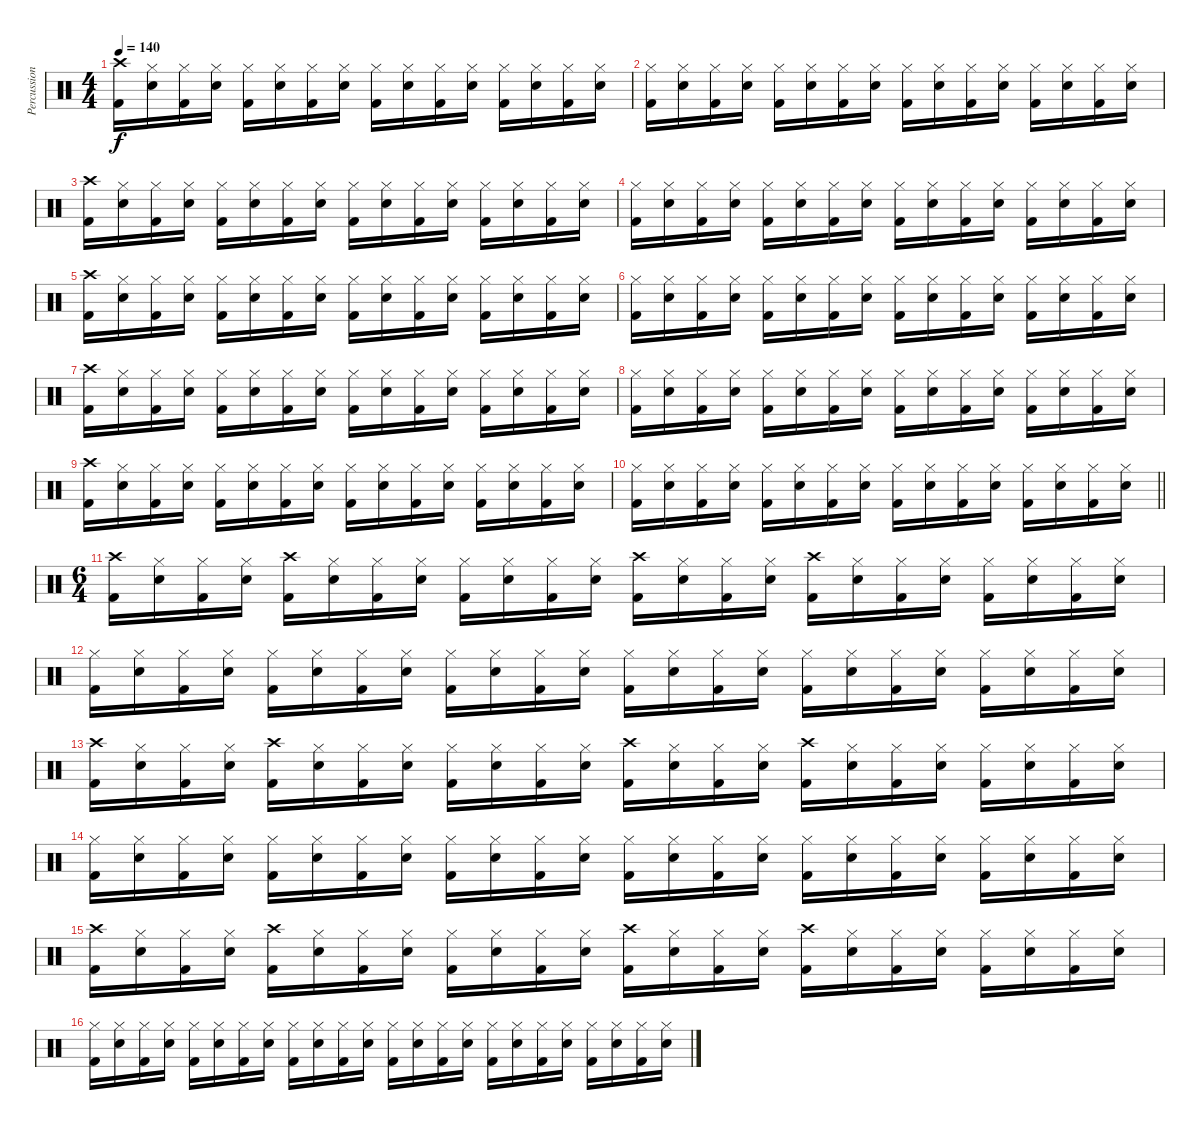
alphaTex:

\track ("Percussions" "Percussion") {instrument percussion}
\staff {score}
\articulation defaults
\ts (4 4)
\tempo 140
\clef neutral
\ks c
("Crash high (hit)" "Kick (hit) 2").16{dy f} ("Hi-Hat (closed)" "Electric Snare (hit)").16 ("Hi-Hat (closed)" "Kick (hit) 2").16 ("Hi-Hat (closed)" "Electric Snare (hit)").16 ("Hi-Hat (closed)" "Kick (hit) 2").16 ("Hi-Hat (closed)" "Electric Snare (hit)").16 ("Hi-Hat (closed)" "Kick (hit) 2").16 ("Hi-Hat (closed)" "Electric Snare (hit)").16 ("Hi-Hat (closed)" "Kick (hit) 2").16 ("Hi-Hat (closed)" "Electric Snare (hit)").16 ("Hi-Hat (closed)" "Kick (hit) 2").16 ("Hi-Hat (closed)" "Electric Snare (hit)").16 ("Hi-Hat (closed)" "Kick (hit) 2").16 ("Hi-Hat (closed)" "Electric Snare (hit)").16 ("Hi-Hat (closed)" "Kick (hit) 2").16 ("Hi-Hat (closed)" "Electric Snare (hit)").16 |
("Hi-Hat (closed)" "Kick (hit) 2").16 ("Hi-Hat (closed)" "Electric Snare (hit)").16 ("Hi-Hat (closed)" "Kick (hit) 2").16 ("Hi-Hat (closed)" "Electric Snare (hit)").16 ("Hi-Hat (closed)" "Kick (hit) 2").16 ("Hi-Hat (closed)" "Electric Snare (hit)").16 ("Hi-Hat (closed)" "Kick (hit) 2").16 ("Hi-Hat (closed)" "Electric Snare (hit)").16 ("Hi-Hat (closed)" "Kick (hit) 2").16 ("Hi-Hat (closed)" "Electric Snare (hit)").16 ("Hi-Hat (closed)" "Kick (hit) 2").16 ("Hi-Hat (closed)" "Electric Snare (hit)").16 ("Hi-Hat (closed)" "Kick (hit) 2").16 ("Hi-Hat (closed)" "Electric Snare (hit)").16 ("Hi-Hat (closed)" "Kick (hit) 2").16 ("Hi-Hat (closed)" "Electric Snare (hit)").16 |
("Crash high (hit)" "Kick (hit) 2").16 ("Hi-Hat (closed)" "Electric Snare (hit)").16 ("Hi-Hat (closed)" "Kick (hit) 2").16 ("Hi-Hat (closed)" "Electric Snare (hit)").16 ("Hi-Hat (closed)" "Kick (hit) 2").16 ("Hi-Hat (closed)" "Electric Snare (hit)").16 ("Hi-Hat (closed)" "Kick (hit) 2").16 ("Hi-Hat (closed)" "Electric Snare (hit)").16 ("Hi-Hat (closed)" "Kick (hit) 2").16 ("Hi-Hat (closed)" "Electric Snare (hit)").16 ("Hi-Hat (closed)" "Kick (hit) 2").16 ("Hi-Hat (closed)" "Electric Snare (hit)").16 ("Hi-Hat (closed)" "Kick (hit) 2").16 ("Hi-Hat (closed)" "Electric Snare (hit)").16 ("Hi-Hat (closed)" "Kick (hit) 2").16 ("Hi-Hat (closed)" "Electric Snare (hit)").16 |
("Hi-Hat (closed)" "Kick (hit) 2").16 ("Hi-Hat (closed)" "Electric Snare (hit)").16 ("Hi-Hat (closed)" "Kick (hit) 2").16 ("Hi-Hat (closed)" "Electric Snare (hit)").16 ("Hi-Hat (closed)" "Kick (hit) 2").16 ("Hi-Hat (closed)" "Electric Snare (hit)").16 ("Hi-Hat (closed)" "Kick (hit) 2").16 ("Hi-Hat (closed)" "Electric Snare (hit)").16 ("Hi-Hat (closed)" "Kick (hit) 2").16 ("Hi-Hat (closed)" "Electric Snare (hit)").16 ("Hi-Hat (closed)" "Kick (hit) 2").16 ("Hi-Hat (closed)" "Electric Snare (hit)").16 ("Hi-Hat (closed)" "Kick (hit) 2").16 ("Hi-Hat (closed)" "Electric Snare (hit)").16 ("Hi-Hat (closed)" "Kick (hit) 2").16 ("Hi-Hat (closed)" "Electric Snare (hit)").16 |
("Crash high (hit)" "Kick (hit) 2").16 ("Hi-Hat (closed)" "Electric Snare (hit)").16 ("Hi-Hat (closed)" "Kick (hit) 2").16 ("Hi-Hat (closed)" "Electric Snare (hit)").16 ("Hi-Hat (closed)" "Kick (hit) 2").16 ("Hi-Hat (closed)" "Electric Snare (hit)").16 ("Hi-Hat (closed)" "Kick (hit) 2").16 ("Hi-Hat (closed)" "Electric Snare (hit)").16 ("Hi-Hat (closed)" "Kick (hit) 2").16 ("Hi-Hat (closed)" "Electric Snare (hit)").16 ("Hi-Hat (closed)" "Kick (hit) 2").16 ("Hi-Hat (closed)" "Electric Snare (hit)").16 ("Hi-Hat (closed)" "Kick (hit) 2").16 ("Hi-Hat (closed)" "Electric Snare (hit)").16 ("Hi-Hat (closed)" "Kick (hit) 2").16 ("Hi-Hat (closed)" "Electric Snare (hit)").16 |
("Hi-Hat (closed)" "Kick (hit) 2").16 ("Hi-Hat (closed)" "Electric Snare (hit)").16 ("Hi-Hat (closed)" "Kick (hit) 2").16 ("Hi-Hat (closed)" "Electric Snare (hit)").16 ("Hi-Hat (closed)" "Kick (hit) 2").16 ("Hi-Hat (closed)" "Electric Snare (hit)").16 ("Hi-Hat (closed)" "Kick (hit) 2").16 ("Hi-Hat (closed)" "Electric Snare (hit)").16 ("Hi-Hat (closed)" "Kick (hit) 2").16 ("Hi-Hat (closed)" "Electric Snare (hit)").16 ("Hi-Hat (closed)" "Kick (hit) 2").16 ("Hi-Hat (closed)" "Electric Snare (hit)").16 ("Hi-Hat (closed)" "Kick (hit) 2").16 ("Hi-Hat (closed)" "Electric Snare (hit)").16 ("Hi-Hat (closed)" "Kick (hit) 2").16 ("Hi-Hat (closed)" "Electric Snare (hit)").16 |
("Crash high (hit)" "Kick (hit) 2").16 ("Hi-Hat (closed)" "Electric Snare (hit)").16 ("Hi-Hat (closed)" "Kick (hit) 2").16 ("Hi-Hat (closed)" "Electric Snare (hit)").16 ("Hi-Hat (closed)" "Kick (hit) 2").16 ("Hi-Hat (closed)" "Electric Snare (hit)").16 ("Hi-Hat (closed)" "Kick (hit) 2").16 ("Hi-Hat (closed)" "Electric Snare (hit)").16 ("Hi-Hat (closed)" "Kick (hit) 2").16 ("Hi-Hat (closed)" "Electric Snare (hit)").16 ("Hi-Hat (closed)" "Kick (hit) 2").16 ("Hi-Hat (closed)" "Electric Snare (hit)").16 ("Hi-Hat (closed)" "Kick (hit) 2").16 ("Hi-Hat (closed)" "Electric Snare (hit)").16 ("Hi-Hat (closed)" "Kick (hit) 2").16 ("Hi-Hat (closed)" "Electric Snare (hit)").16 |
("Hi-Hat (closed)" "Kick (hit) 2").16 ("Hi-Hat (closed)" "Electric Snare (hit)").16 ("Hi-Hat (closed)" "Kick (hit) 2").16 ("Hi-Hat (closed)" "Electric Snare (hit)").16 ("Hi-Hat (closed)" "Kick (hit) 2").16 ("Hi-Hat (closed)" "Electric Snare (hit)").16 ("Hi-Hat (closed)" "Kick (hit) 2").16 ("Hi-Hat (closed)" "Electric Snare (hit)").16 ("Hi-Hat (closed)" "Kick (hit) 2").16 ("Hi-Hat (closed)" "Electric Snare (hit)").16 ("Hi-Hat (closed)" "Kick (hit) 2").16 ("Hi-Hat (closed)" "Electric Snare (hit)").16 ("Hi-Hat (closed)" "Kick (hit) 2").16 ("Hi-Hat (closed)" "Electric Snare (hit)").16 ("Hi-Hat (closed)" "Kick (hit) 2").16 ("Hi-Hat (closed)" "Electric Snare (hit)").16 |
("Crash high (hit)" "Kick (hit) 2").16 ("Hi-Hat (closed)" "Electric Snare (hit)").16 ("Hi-Hat (closed)" "Kick (hit) 2").16 ("Hi-Hat (closed)" "Electric Snare (hit)").16 ("Hi-Hat (closed)" "Kick (hit) 2").16 ("Hi-Hat (closed)" "Electric Snare (hit)").16 ("Hi-Hat (closed)" "Kick (hit) 2").16 ("Hi-Hat (closed)" "Electric Snare (hit)").16 ("Hi-Hat (closed)" "Kick (hit) 2").16 ("Hi-Hat (closed)" "Electric Snare (hit)").16 ("Hi-Hat (closed)" "Kick (hit) 2").16 ("Hi-Hat (closed)" "Electric Snare (hit)").16 ("Hi-Hat (closed)" "Kick (hit) 2").16 ("Hi-Hat (closed)" "Electric Snare (hit)").16 ("Hi-Hat (closed)" "Kick (hit) 2").16 ("Hi-Hat (closed)" "Electric Snare (hit)").16 |
\barLineRight lightlight
("Hi-Hat (closed)" "Kick (hit) 2").16 ("Hi-Hat (closed)" "Electric Snare (hit)").16 ("Hi-Hat (closed)" "Kick (hit) 2").16 ("Hi-Hat (closed)" "Electric Snare (hit)").16 ("Hi-Hat (closed)" "Kick (hit) 2").16 ("Hi-Hat (closed)" "Electric Snare (hit)").16 ("Hi-Hat (closed)" "Kick (hit) 2").16 ("Hi-Hat (closed)" "Electric Snare (hit)").16 ("Hi-Hat (closed)" "Kick (hit) 2").16 ("Hi-Hat (closed)" "Electric Snare (hit)").16 ("Hi-Hat (closed)" "Kick (hit) 2").16 ("Hi-Hat (closed)" "Electric Snare (hit)").16 ("Hi-Hat (closed)" "Kick (hit) 2").16 ("Hi-Hat (closed)" "Electric Snare (hit)").16 ("Hi-Hat (closed)" "Kick (hit) 2").16 ("Hi-Hat (closed)" "Electric Snare (hit)").16 |
\ts (6 4)
("Crash high (hit)" "Kick (hit) 2").16 ("Hi-Hat (closed)" "Electric Snare (hit)").16 ("Hi-Hat (closed)" "Kick (hit) 2").16 ("Hi-Hat (closed)" "Electric Snare (hit)").16 ("Crash high (hit)" "Kick (hit) 2").16 ("Hi-Hat (closed)" "Electric Snare (hit)").16 ("Hi-Hat (closed)" "Kick (hit) 2").16 ("Hi-Hat (closed)" "Electric Snare (hit)").16 ("Hi-Hat (closed)" "Kick (hit) 2").16 ("Hi-Hat (closed)" "Electric Snare (hit)").16 ("Hi-Hat (closed)" "Kick (hit) 2").16 ("Hi-Hat (closed)" "Electric Snare (hit)").16 ("Crash high (hit)" "Kick (hit) 2").16 ("Hi-Hat (closed)" "Electric Snare (hit)").16 ("Hi-Hat (closed)" "Kick (hit) 2").16 ("Hi-Hat (closed)" "Electric Snare (hit)").16 ("Crash high (hit)" "Kick (hit) 2").16 ("Hi-Hat (closed)" "Electric Snare (hit)").16 ("Hi-Hat (closed)" "Kick (hit) 2").16 ("Hi-Hat (closed)" "Electric Snare (hit)").16 ("Hi-Hat (closed)" "Kick (hit) 2").16 ("Hi-Hat (closed)" "Electric Snare (hit)").16 ("Hi-Hat (closed)" "Kick (hit) 2").16 ("Hi-Hat (closed)" "Electric Snare (hit)").16 |
("Hi-Hat (closed)" "Kick (hit) 2").16 ("Hi-Hat (closed)" "Electric Snare (hit)").16 ("Hi-Hat (closed)" "Kick (hit) 2").16 ("Hi-Hat (closed)" "Electric Snare (hit)").16 ("Hi-Hat (closed)" "Kick (hit) 2").16 ("Hi-Hat (closed)" "Electric Snare (hit)").16 ("Hi-Hat (closed)" "Kick (hit) 2").16 ("Hi-Hat (closed)" "Electric Snare (hit)").16 ("Hi-Hat (closed)" "Kick (hit) 2").16 ("Hi-Hat (closed)" "Electric Snare (hit)").16 ("Hi-Hat (closed)" "Kick (hit) 2").16 ("Hi-Hat (closed)" "Electric Snare (hit)").16 ("Hi-Hat (closed)" "Kick (hit) 2").16 ("Hi-Hat (closed)" "Electric Snare (hit)").16 ("Hi-Hat (closed)" "Kick (hit) 2").16 ("Hi-Hat (closed)" "Electric Snare (hit)").16 ("Hi-Hat (closed)" "Kick (hit) 2").16 ("Hi-Hat (closed)" "Electric Snare (hit)").16 ("Hi-Hat (closed)" "Kick (hit) 2").16 ("Hi-Hat (closed)" "Electric Snare (hit)").16 ("Hi-Hat (closed)" "Kick (hit) 2").16 ("Hi-Hat (closed)" "Electric Snare (hit)").16 ("Hi-Hat (closed)" "Kick (hit) 2").16 ("Hi-Hat (closed)" "Electric Snare (hit)").16 |
("Crash high (hit)" "Kick (hit) 2").16 ("Hi-Hat (closed)" "Electric Snare (hit)").16 ("Hi-Hat (closed)" "Kick (hit) 2").16 ("Hi-Hat (closed)" "Electric Snare (hit)").16 ("Crash high (hit)" "Kick (hit) 2").16 ("Hi-Hat (closed)" "Electric Snare (hit)").16 ("Hi-Hat (closed)" "Kick (hit) 2").16 ("Hi-Hat (closed)" "Electric Snare (hit)").16 ("Hi-Hat (closed)" "Kick (hit) 2").16 ("Hi-Hat (closed)" "Electric Snare (hit)").16 ("Hi-Hat (closed)" "Kick (hit) 2").16 ("Hi-Hat (closed)" "Electric Snare (hit)").16 ("Crash high (hit)" "Kick (hit) 2").16 ("Hi-Hat (closed)" "Electric Snare (hit)").16 ("Hi-Hat (closed)" "Kick (hit) 2").16 ("Hi-Hat (closed)" "Electric Snare (hit)").16 ("Crash high (hit)" "Kick (hit) 2").16 ("Hi-Hat (closed)" "Electric Snare (hit)").16 ("Hi-Hat (closed)" "Kick (hit) 2").16 ("Hi-Hat (closed)" "Electric Snare (hit)").16 ("Hi-Hat (closed)" "Kick (hit) 2").16 ("Hi-Hat (closed)" "Electric Snare (hit)").16 ("Hi-Hat (closed)" "Kick (hit) 2").16 ("Hi-Hat (closed)" "Electric Snare (hit)").16 |
("Hi-Hat (closed)" "Kick (hit) 2").16 ("Hi-Hat (closed)" "Electric Snare (hit)").16 ("Hi-Hat (closed)" "Kick (hit) 2").16 ("Hi-Hat (closed)" "Electric Snare (hit)").16 ("Hi-Hat (closed)" "Kick (hit) 2").16 ("Hi-Hat (closed)" "Electric Snare (hit)").16 ("Hi-Hat (closed)" "Kick (hit) 2").16 ("Hi-Hat (closed)" "Electric Snare (hit)").16 ("Hi-Hat (closed)" "Kick (hit) 2").16 ("Hi-Hat (closed)" "Electric Snare (hit)").16 ("Hi-Hat (closed)" "Kick (hit) 2").16 ("Hi-Hat (closed)" "Electric Snare (hit)").16 ("Hi-Hat (closed)" "Kick (hit) 2").16 ("Hi-Hat (closed)" "Electric Snare (hit)").16 ("Hi-Hat (closed)" "Kick (hit) 2").16 ("Hi-Hat (closed)" "Electric Snare (hit)").16 ("Hi-Hat (closed)" "Kick (hit) 2").16 ("Hi-Hat (closed)" "Electric Snare (hit)").16 ("Hi-Hat (closed)" "Kick (hit) 2").16 ("Hi-Hat (closed)" "Electric Snare (hit)").16 ("Hi-Hat (closed)" "Kick (hit) 2").16 ("Hi-Hat (closed)" "Electric Snare (hit)").16 ("Hi-Hat (closed)" "Kick (hit) 2").16 ("Hi-Hat (closed)" "Electric Snare (hit)").16 |
("Crash high (hit)" "Kick (hit) 2").16 ("Hi-Hat (closed)" "Electric Snare (hit)").16 ("Hi-Hat (closed)" "Kick (hit) 2").16 ("Hi-Hat (closed)" "Electric Snare (hit)").16 ("Crash high (hit)" "Kick (hit) 2").16 ("Hi-Hat (closed)" "Electric Snare (hit)").16 ("Hi-Hat (closed)" "Kick (hit) 2").16 ("Hi-Hat (closed)" "Electric Snare (hit)").16 ("Hi-Hat (closed)" "Kick (hit) 2").16 ("Hi-Hat (closed)" "Electric Snare (hit)").16 ("Hi-Hat (closed)" "Kick (hit) 2").16 ("Hi-Hat (closed)" "Electric Snare (hit)").16 ("Crash high (hit)" "Kick (hit) 2").16 ("Hi-Hat (closed)" "Electric Snare (hit)").16 ("Hi-Hat (closed)" "Kick (hit) 2").16 ("Hi-Hat (closed)" "Electric Snare (hit)").16 ("Crash high (hit)" "Kick (hit) 2").16 ("Hi-Hat (closed)" "Electric Snare (hit)").16 ("Hi-Hat (closed)" "Kick (hit) 2").16 ("Hi-Hat (closed)" "Electric Snare (hit)").16 ("Hi-Hat (closed)" "Kick (hit) 2").16 ("Hi-Hat (closed)" "Electric Snare (hit)").16 ("Hi-Hat (closed)" "Kick (hit) 2").16 ("Hi-Hat (closed)" "Electric Snare (hit)").16 |
("Hi-Hat (closed)" "Kick (hit) 2").16 ("Hi-Hat (closed)" "Electric Snare (hit)").16 ("Hi-Hat (closed)" "Kick (hit) 2").16 ("Hi-Hat (closed)" "Electric Snare (hit)").16 ("Hi-Hat (closed)" "Kick (hit) 2").16 ("Hi-Hat (closed)" "Electric Snare (hit)").16 ("Hi-Hat (closed)" "Kick (hit) 2").16 ("Hi-Hat (closed)" "Electric Snare (hit)").16 ("Hi-Hat (closed)" "Kick (hit) 2").16 ("Hi-Hat (closed)" "Electric Snare (hit)").16 ("Hi-Hat (closed)" "Kick (hit) 2").16 ("Hi-Hat (closed)" "Electric Snare (hit)").16 ("Hi-Hat (closed)" "Kick (hit) 2").16 ("Hi-Hat (closed)" "Electric Snare (hit)").16 ("Hi-Hat (closed)" "Kick (hit) 2").16 ("Hi-Hat (closed)" "Electric Snare (hit)").16 ("Hi-Hat (closed)" "Kick (hit) 2").16 ("Hi-Hat (closed)" "Electric Snare (hit)").16 ("Hi-Hat (closed)" "Kick (hit) 2").16 ("Hi-Hat (closed)" "Electric Snare (hit)").16 ("Hi-Hat (closed)" "Kick (hit) 2").16 ("Hi-Hat (closed)" "Electric Snare (hit)").16 ("Hi-Hat (closed)" "Kick (hit) 2").16 ("Hi-Hat (closed)" "Electric Snare (hit)").16
